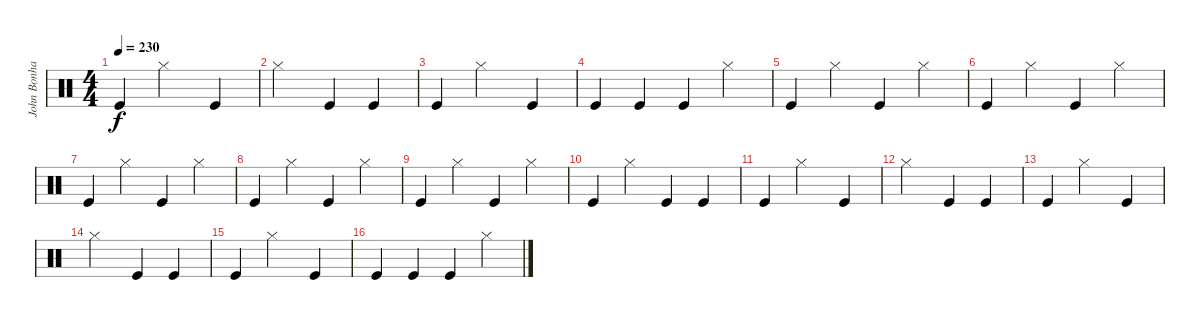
\track ("John Bonham" "John Bonha") {instrument percussion}
\staff {score}
\articulation defaults
\ts (4 4)
\tempo 230
\clef neutral
\ks c "Kick (hit)".4{dy f} "Hi-Hat (closed)".2 "Kick (hit)".4
|
"Hi-Hat (closed)".2 "Kick (hit)".4 "Kick (hit)".4 |
"Kick (hit)".4 "Hi-Hat (closed)".2 "Kick (hit)".4 |
"Kick (hit)".4 "Kick (hit)".4 "Kick (hit)".4 "Hi-Hat (closed)".4 |
"Kick (hit)".4 "Hi-Hat (closed)".4 "Kick (hit)".4 "Hi-Hat (closed)".4 |
"Kick (hit)".4 "Hi-Hat (closed)".4 "Kick (hit)".4 "Hi-Hat (closed)".4 |
"Kick (hit)".4 "Hi-Hat (closed)".4 "Kick (hit)".4 "Hi-Hat (closed)".4 |
"Kick (hit)".4 "Hi-Hat (closed)".4 "Kick (hit)".4 "Hi-Hat (closed)".4 |
"Kick (hit)".4 "Hi-Hat (closed)".4 "Kick (hit)".4 "Hi-Hat (closed)".4 |
"Kick (hit)".4 "Hi-Hat (closed)".4 "Kick (hit)".4 "Kick (hit)".4 |
"Kick (hit)".4 "Hi-Hat (closed)".2 "Kick (hit)".4 |
"Hi-Hat (closed)".2 "Kick (hit)".4 "Kick (hit)".4 |
"Kick (hit)".4 "Hi-Hat (closed)".2 "Kick (hit)".4 |
"Hi-Hat (closed)".2 "Kick (hit)".4 "Kick (hit)".4 |
"Kick (hit)".4 "Hi-Hat (closed)".2 "Kick (hit)".4 |
"Kick (hit)".4 "Kick (hit)".4 "Kick (hit)".4 "Hi-Hat (closed)".4
